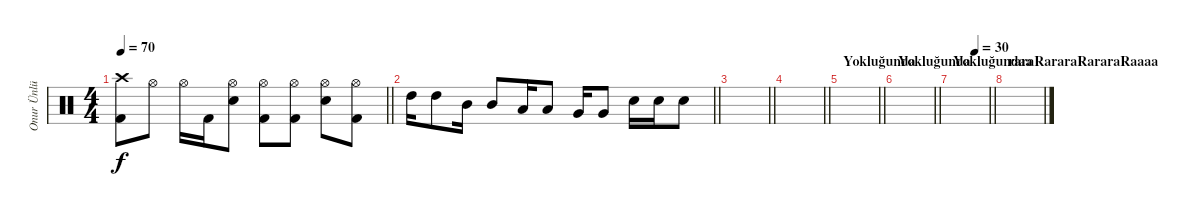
\track ("Onur Ünlü - Davul" "Onur Ünlü ") {instrument percussion}
\staff {score}
\articulation defaults
\ts (4 4)
\tempo 70
\clef neutral
\barLineRight lightlight
\ks c
("Crash high (hit)" "Kick (hit) 2").8{dy f} "Hi-Hat (open)".8 "Hi-Hat (open)".16 "Kick (hit) 2".16 ("Hi-Hat (open)" "Snare (hit) 2").8 ("Hi-Hat (open)" "Kick (hit) 2").8 ("Hi-Hat (open)" "Kick (hit) 2").8 ("Hi-Hat (open)" "Snare (hit) 2").8 ("Hi-Hat (open)" "Kick (hit) 2").8 |
\barLineRight lightlight "High Tom (hit)".16 "High Tom (hit)".8 "Mid Tom (hit)".16 "Mid Tom (hit)".8 "Low Tom (hit)".16 "Low Tom (hit)".8 "Very Low Tom (hit)".16 "Very Low Tom (hit)".8 "Snare (hit) 2".16 "Snare (hit) 2".16 "Snare (hit) 2".8
|
\barLineRight lightlight
|
\barLineRight lightlight
|
\section ("" "Yokluğunda")
\barLineRight lightlight
|
\section ("" "Yokluğunda")
\barLineRight lightlight
|
\section ("" "Yokluğundaa")
\tempo (30 0.625)
\barLineRight lightlight
|
\section ("" "raraRararaRararaRaaaa")
